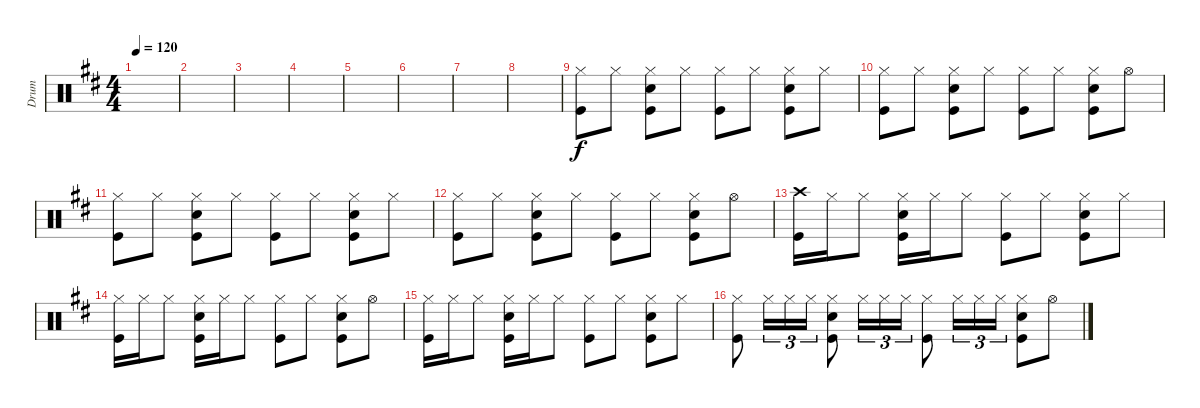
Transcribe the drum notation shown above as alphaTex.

\track ("Drum" "Drum") {instrument percussion}
\staff {score}
\articulation defaults
\ts (4 4)
\tempo 120
\clef neutral
\ks d
|
|
|
|
|
|
|
|
("Hi-Hat (closed)" "Kick (hit)").8 "Hi-Hat (closed)".8 ("Hi-Hat (closed)" "Snare (hit) 2" "Kick (hit)").8 "Hi-Hat (closed)".8 ("Hi-Hat (closed)" "Kick (hit)").8 "Hi-Hat (closed)".8 ("Hi-Hat (closed)" "Snare (hit) 2" "Kick (hit)").8 "Hi-Hat (closed)".8 |
("Hi-Hat (closed)" "Kick (hit)").8 "Hi-Hat (closed)".8 ("Hi-Hat (closed)" "Snare (hit) 2" "Kick (hit)").8 "Hi-Hat (closed)".8 ("Hi-Hat (closed)" "Kick (hit)").8 "Hi-Hat (closed)".8 ("Hi-Hat (closed)" "Snare (hit) 2" "Kick (hit)").8 "Hi-Hat (open)".8 |
("Hi-Hat (closed)" "Kick (hit)").8 "Hi-Hat (closed)".8 ("Hi-Hat (closed)" "Snare (hit) 2" "Kick (hit)").8 "Hi-Hat (closed)".8 ("Hi-Hat (closed)" "Kick (hit)").8 "Hi-Hat (closed)".8 ("Hi-Hat (closed)" "Snare (hit) 2" "Kick (hit)").8 "Hi-Hat (closed)".8 |
("Hi-Hat (closed)" "Kick (hit)").8 "Hi-Hat (closed)".8 ("Hi-Hat (closed)" "Snare (hit) 2" "Kick (hit)").8 "Hi-Hat (closed)".8 ("Hi-Hat (closed)" "Kick (hit)").8 "Hi-Hat (closed)".8 ("Hi-Hat (closed)" "Snare (hit) 2" "Kick (hit)").8 "Hi-Hat (open)".8 |
("Crash high (hit)" "Kick (hit)").16 "Hi-Hat (closed)".16 "Hi-Hat (closed)".8 ("Hi-Hat (closed)" "Snare (hit) 2" "Kick (hit)").16 "Hi-Hat (closed)".16 "Hi-Hat (closed)".8 ("Hi-Hat (closed)" "Kick (hit)").8 "Hi-Hat (closed)".8 ("Hi-Hat (closed)" "Snare (hit) 2" "Kick (hit)").8 "Hi-Hat (closed)".8 |
("Hi-Hat (closed)" "Kick (hit)").16 "Hi-Hat (closed)".16 "Hi-Hat (closed)".8 ("Hi-Hat (closed)" "Snare (hit) 2" "Kick (hit)").16 "Hi-Hat (closed)".16 "Hi-Hat (closed)".8 ("Hi-Hat (closed)" "Kick (hit)").8 "Hi-Hat (closed)".8 ("Hi-Hat (closed)" "Snare (hit) 2" "Kick (hit)").8 "Hi-Hat (open)".8 |
("Hi-Hat (closed)" "Kick (hit)").16 "Hi-Hat (closed)".16 "Hi-Hat (closed)".8 ("Hi-Hat (closed)" "Snare (hit) 2" "Kick (hit)").16 "Hi-Hat (closed)".16 "Hi-Hat (closed)".8 ("Hi-Hat (closed)" "Kick (hit)").8 "Hi-Hat (closed)".8 ("Hi-Hat (closed)" "Snare (hit) 2" "Kick (hit)").8 "Hi-Hat (closed)".8 |
("Hi-Hat (closed)" "Kick (hit)").8 "Hi-Hat (closed)".16{tu (3 2)} "Hi-Hat (closed)".16{tu (3 2)} "Hi-Hat (closed)".16{tu (3 2)} ("Hi-Hat (closed)" "Snare (hit) 2" "Kick (hit)").8 "Hi-Hat (closed)".16{tu (3 2)} "Hi-Hat (closed)".16{tu (3 2)} "Hi-Hat (closed)".16{tu (3 2)} ("Hi-Hat (closed)" "Kick (hit)").8 "Hi-Hat (closed)".16{tu (3 2)} "Hi-Hat (closed)".16{tu (3 2)} "Hi-Hat (closed)".16{tu (3 2)} ("Hi-Hat (closed)" "Snare (hit) 2" "Kick (hit)").8 "Hi-Hat (open)".8
